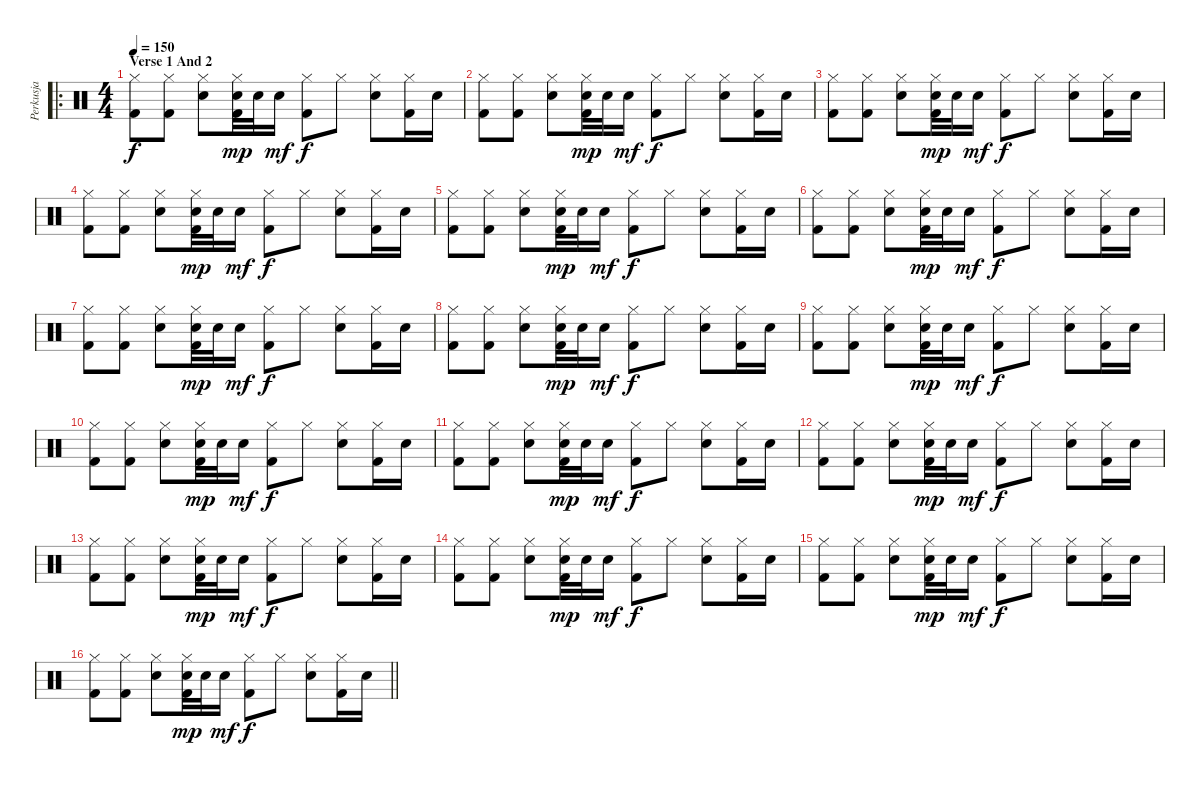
\track ("Perkusja" "Perkusja") {instrument percussion}
\staff {score}
\articulation defaults
\ro
\ts (4 4)
\section ("" "Verse 1 And 2")
\tempo 150
\clef neutral
\ks c
("Hi-Hat (closed)" "Kick (hit) 2").8{dy f} ("Hi-Hat (closed)" "Kick (hit) 2").8 ("Hi-Hat (closed)" "Electric Snare (hit)").8 ("Hi-Hat (closed)" "Electric Snare (hit)" "Kick (hit) 2").32{dy mp} "Electric Snare (hit)".32 "Electric Snare (hit)".16{dy mf} ("Hi-Hat (closed)" "Kick (hit) 2").8{dy f} "Hi-Hat (closed)".8 ("Hi-Hat (closed)" "Electric Snare (hit)").8 ("Hi-Hat (closed)" "Kick (hit) 2").16 "Electric Snare (hit)".16 |
("Hi-Hat (closed)" "Kick (hit) 2").8 ("Hi-Hat (closed)" "Kick (hit) 2").8 ("Hi-Hat (closed)" "Electric Snare (hit)").8 ("Hi-Hat (closed)" "Electric Snare (hit)" "Kick (hit) 2").32{dy mp} "Electric Snare (hit)".32 "Electric Snare (hit)".16{dy mf} ("Hi-Hat (closed)" "Kick (hit) 2").8{dy f} "Hi-Hat (closed)".8 ("Hi-Hat (closed)" "Electric Snare (hit)").8 ("Hi-Hat (closed)" "Kick (hit) 2").16 "Electric Snare (hit)".16 |
("Hi-Hat (closed)" "Kick (hit) 2").8 ("Hi-Hat (closed)" "Kick (hit) 2").8 ("Hi-Hat (closed)" "Electric Snare (hit)").8 ("Hi-Hat (closed)" "Electric Snare (hit)" "Kick (hit) 2").32{dy mp} "Electric Snare (hit)".32 "Electric Snare (hit)".16{dy mf} ("Hi-Hat (closed)" "Kick (hit) 2").8{dy f} "Hi-Hat (closed)".8 ("Hi-Hat (closed)" "Electric Snare (hit)").8 ("Hi-Hat (closed)" "Kick (hit) 2").16 "Electric Snare (hit)".16 |
("Hi-Hat (closed)" "Kick (hit) 2").8 ("Hi-Hat (closed)" "Kick (hit) 2").8 ("Hi-Hat (closed)" "Electric Snare (hit)").8 ("Hi-Hat (closed)" "Electric Snare (hit)" "Kick (hit) 2").32{dy mp} "Electric Snare (hit)".32 "Electric Snare (hit)".16{dy mf} ("Hi-Hat (closed)" "Kick (hit) 2").8{dy f} "Hi-Hat (closed)".8 ("Hi-Hat (closed)" "Electric Snare (hit)").8 ("Hi-Hat (closed)" "Kick (hit) 2").16 "Electric Snare (hit)".16 |
("Hi-Hat (closed)" "Kick (hit) 2").8 ("Hi-Hat (closed)" "Kick (hit) 2").8 ("Hi-Hat (closed)" "Electric Snare (hit)").8 ("Hi-Hat (closed)" "Electric Snare (hit)" "Kick (hit) 2").32{dy mp} "Electric Snare (hit)".32 "Electric Snare (hit)".16{dy mf} ("Hi-Hat (closed)" "Kick (hit) 2").8{dy f} "Hi-Hat (closed)".8 ("Hi-Hat (closed)" "Electric Snare (hit)").8 ("Hi-Hat (closed)" "Kick (hit) 2").16 "Electric Snare (hit)".16 |
("Hi-Hat (closed)" "Kick (hit) 2").8 ("Hi-Hat (closed)" "Kick (hit) 2").8 ("Hi-Hat (closed)" "Electric Snare (hit)").8 ("Hi-Hat (closed)" "Electric Snare (hit)" "Kick (hit) 2").32{dy mp} "Electric Snare (hit)".32 "Electric Snare (hit)".16{dy mf} ("Hi-Hat (closed)" "Kick (hit) 2").8{dy f} "Hi-Hat (closed)".8 ("Hi-Hat (closed)" "Electric Snare (hit)").8 ("Hi-Hat (closed)" "Kick (hit) 2").16 "Electric Snare (hit)".16 |
("Hi-Hat (closed)" "Kick (hit) 2").8 ("Hi-Hat (closed)" "Kick (hit) 2").8 ("Hi-Hat (closed)" "Electric Snare (hit)").8 ("Hi-Hat (closed)" "Electric Snare (hit)" "Kick (hit) 2").32{dy mp} "Electric Snare (hit)".32 "Electric Snare (hit)".16{dy mf} ("Hi-Hat (closed)" "Kick (hit) 2").8{dy f} "Hi-Hat (closed)".8 ("Hi-Hat (closed)" "Electric Snare (hit)").8 ("Hi-Hat (closed)" "Kick (hit) 2").16 "Electric Snare (hit)".16 |
("Hi-Hat (closed)" "Kick (hit) 2").8 ("Hi-Hat (closed)" "Kick (hit) 2").8 ("Hi-Hat (closed)" "Electric Snare (hit)").8 ("Hi-Hat (closed)" "Electric Snare (hit)" "Kick (hit) 2").32{dy mp} "Electric Snare (hit)".32 "Electric Snare (hit)".16{dy mf} ("Hi-Hat (closed)" "Kick (hit) 2").8{dy f} "Hi-Hat (closed)".8 ("Hi-Hat (closed)" "Electric Snare (hit)").8 ("Hi-Hat (closed)" "Kick (hit) 2").16 "Electric Snare (hit)".16 |
("Hi-Hat (closed)" "Kick (hit) 2").8 ("Hi-Hat (closed)" "Kick (hit) 2").8 ("Hi-Hat (closed)" "Electric Snare (hit)").8 ("Hi-Hat (closed)" "Electric Snare (hit)" "Kick (hit) 2").32{dy mp} "Electric Snare (hit)".32 "Electric Snare (hit)".16{dy mf} ("Hi-Hat (closed)" "Kick (hit) 2").8{dy f} "Hi-Hat (closed)".8 ("Hi-Hat (closed)" "Electric Snare (hit)").8 ("Hi-Hat (closed)" "Kick (hit) 2").16 "Electric Snare (hit)".16 |
("Hi-Hat (closed)" "Kick (hit) 2").8 ("Hi-Hat (closed)" "Kick (hit) 2").8 ("Hi-Hat (closed)" "Electric Snare (hit)").8 ("Hi-Hat (closed)" "Electric Snare (hit)" "Kick (hit) 2").32{dy mp} "Electric Snare (hit)".32 "Electric Snare (hit)".16{dy mf} ("Hi-Hat (closed)" "Kick (hit) 2").8{dy f} "Hi-Hat (closed)".8 ("Hi-Hat (closed)" "Electric Snare (hit)").8 ("Hi-Hat (closed)" "Kick (hit) 2").16 "Electric Snare (hit)".16 |
("Hi-Hat (closed)" "Kick (hit) 2").8 ("Hi-Hat (closed)" "Kick (hit) 2").8 ("Hi-Hat (closed)" "Electric Snare (hit)").8 ("Hi-Hat (closed)" "Electric Snare (hit)" "Kick (hit) 2").32{dy mp} "Electric Snare (hit)".32 "Electric Snare (hit)".16{dy mf} ("Hi-Hat (closed)" "Kick (hit) 2").8{dy f} "Hi-Hat (closed)".8 ("Hi-Hat (closed)" "Electric Snare (hit)").8 ("Hi-Hat (closed)" "Kick (hit) 2").16 "Electric Snare (hit)".16 |
("Hi-Hat (closed)" "Kick (hit) 2").8 ("Hi-Hat (closed)" "Kick (hit) 2").8 ("Hi-Hat (closed)" "Electric Snare (hit)").8 ("Hi-Hat (closed)" "Electric Snare (hit)" "Kick (hit) 2").32{dy mp} "Electric Snare (hit)".32 "Electric Snare (hit)".16{dy mf} ("Hi-Hat (closed)" "Kick (hit) 2").8{dy f} "Hi-Hat (closed)".8 ("Hi-Hat (closed)" "Electric Snare (hit)").8 ("Hi-Hat (closed)" "Kick (hit) 2").16 "Electric Snare (hit)".16 |
("Hi-Hat (closed)" "Kick (hit) 2").8 ("Hi-Hat (closed)" "Kick (hit) 2").8 ("Hi-Hat (closed)" "Electric Snare (hit)").8 ("Hi-Hat (closed)" "Electric Snare (hit)" "Kick (hit) 2").32{dy mp} "Electric Snare (hit)".32 "Electric Snare (hit)".16{dy mf} ("Hi-Hat (closed)" "Kick (hit) 2").8{dy f} "Hi-Hat (closed)".8 ("Hi-Hat (closed)" "Electric Snare (hit)").8 ("Hi-Hat (closed)" "Kick (hit) 2").16 "Electric Snare (hit)".16 |
("Hi-Hat (closed)" "Kick (hit) 2").8 ("Hi-Hat (closed)" "Kick (hit) 2").8 ("Hi-Hat (closed)" "Electric Snare (hit)").8 ("Hi-Hat (closed)" "Electric Snare (hit)" "Kick (hit) 2").32{dy mp} "Electric Snare (hit)".32 "Electric Snare (hit)".16{dy mf} ("Hi-Hat (closed)" "Kick (hit) 2").8{dy f} "Hi-Hat (closed)".8 ("Hi-Hat (closed)" "Electric Snare (hit)").8 ("Hi-Hat (closed)" "Kick (hit) 2").16 "Electric Snare (hit)".16 |
("Hi-Hat (closed)" "Kick (hit) 2").8 ("Hi-Hat (closed)" "Kick (hit) 2").8 ("Hi-Hat (closed)" "Electric Snare (hit)").8 ("Hi-Hat (closed)" "Electric Snare (hit)" "Kick (hit) 2").32{dy mp} "Electric Snare (hit)".32 "Electric Snare (hit)".16{dy mf} ("Hi-Hat (closed)" "Kick (hit) 2").8{dy f} "Hi-Hat (closed)".8 ("Hi-Hat (closed)" "Electric Snare (hit)").8 ("Hi-Hat (closed)" "Kick (hit) 2").16 "Electric Snare (hit)".16 |
\barLineRight lightlight
("Hi-Hat (closed)" "Kick (hit) 2").8 ("Hi-Hat (closed)" "Kick (hit) 2").8 ("Hi-Hat (closed)" "Electric Snare (hit)").8 ("Hi-Hat (closed)" "Electric Snare (hit)" "Kick (hit) 2").32{dy mp} "Electric Snare (hit)".32 "Electric Snare (hit)".16{dy mf} ("Hi-Hat (closed)" "Kick (hit) 2").8{dy f} "Hi-Hat (closed)".8 ("Hi-Hat (closed)" "Electric Snare (hit)").8 ("Hi-Hat (closed)" "Kick (hit) 2").16 "Electric Snare (hit)".16
